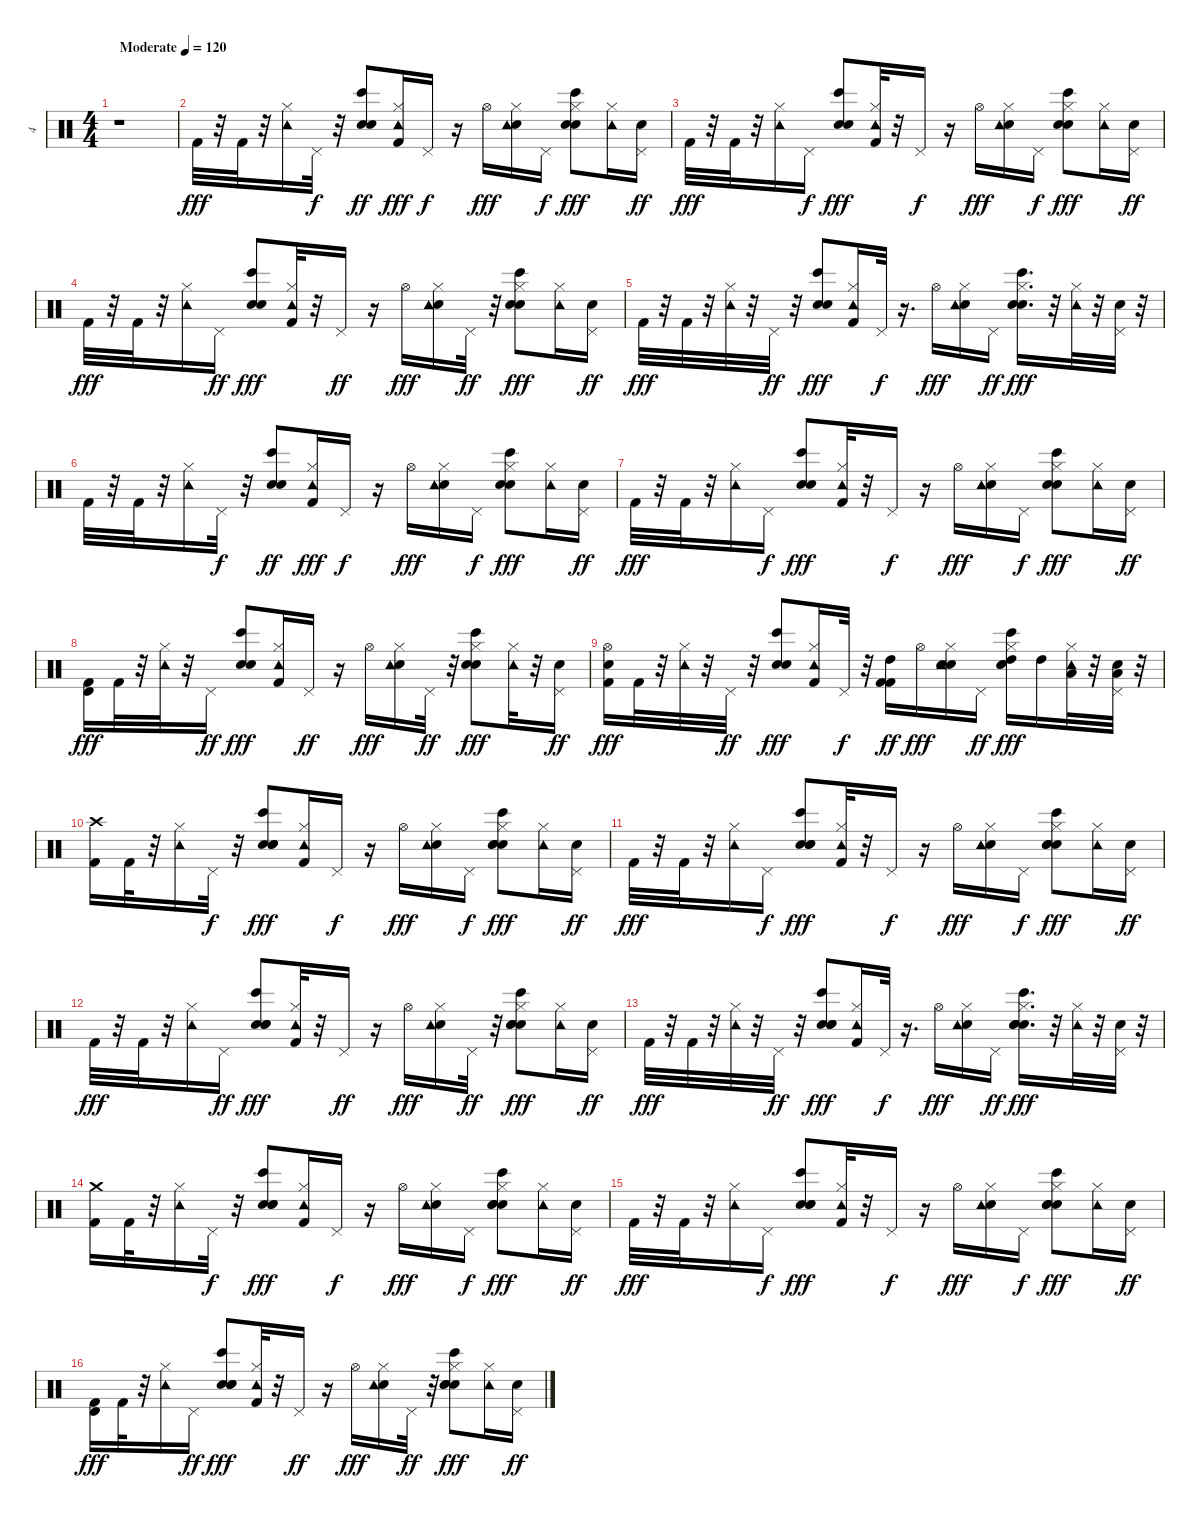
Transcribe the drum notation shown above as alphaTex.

\track ("4" "4") {instrument percussion}
\staff {score}
\articulation defaults
\ts (4 4)
\tempo (120 "Moderate")
\clef neutral
\ks c
r.1{dy fff} |
"Kick (hit) 2".32{volume 15 balance 8} r.32 "Kick (hit) 2".32 r.32 ("Hi-Hat (closed)" "Tambourine (hit)").16 "Pedal Hi-Hat (hit)".32{dy f} r.32 ("Snare (hit) 2" "Bongo High (hit)" "Hand Clap (hit)").8{dy ff} ("Hi-Hat (closed)" "Tambourine (hit)" "Kick (hit) 2").16{dy fff} "Pedal Hi-Hat (hit)".16{dy f} r.16 "Hi-Hat (open)".16{dy fff} ("Hi-Hat (closed)" "Snare (hit) 2" "Tambourine (hit)").16 "Pedal Hi-Hat (hit)".16{dy f} ("Snare (hit) 2" "Hi-Hat (closed)" "Hand Clap (hit)" "Bongo High (hit)").8{dy fff} ("Hi-Hat (closed)" "Tambourine (hit)").16 ("Pedal Hi-Hat (hit)" "Snare (hit) 2").16{dy ff} |
"Kick (hit) 2".32{dy fff} r.32 "Kick (hit) 2".32 r.32 ("Hi-Hat (closed)" "Tambourine (hit)").16 "Pedal Hi-Hat (hit)".16{dy f} ("Snare (hit) 2" "Bongo High (hit)" "Hand Clap (hit)").8{dy fff} ("Hi-Hat (closed)" "Kick (hit) 2" "Tambourine (hit)").32 r.32 "Pedal Hi-Hat (hit)".16{dy f} r.16 "Hi-Hat (open)".16{dy fff} ("Snare (hit) 2" "Hi-Hat (closed)" "Tambourine (hit)").16 "Pedal Hi-Hat (hit)".16{dy f} ("Snare (hit) 2" "Hand Clap (hit)" "Hi-Hat (closed)" "Bongo High (hit)").8{dy fff} ("Hi-Hat (closed)" "Tambourine (hit)").16 ("Pedal Hi-Hat (hit)" "Snare (hit) 2").16{dy ff} |
"Kick (hit) 2".32{dy fff} r.32 "Kick (hit) 2".32 r.32 ("Hi-Hat (closed)" "Tambourine (hit)").16 "Pedal Hi-Hat (hit)".16{dy ff} ("Snare (hit) 2" "Bongo High (hit)" "Hand Clap (hit)").8{dy fff} ("Hi-Hat (closed)" "Kick (hit) 2" "Tambourine (hit)").32 r.32 "Pedal Hi-Hat (hit)".16{dy ff} r.16 "Hi-Hat (open)".16{dy fff} ("Snare (hit) 2" "Hi-Hat (closed)" "Tambourine (hit)").16 "Pedal Hi-Hat (hit)".32{dy ff} r.32 ("Snare (hit) 2" "Hi-Hat (closed)" "Hand Clap (hit)" "Bongo High (hit)").8{dy fff} ("Hi-Hat (closed)" "Tambourine (hit)").16 ("Pedal Hi-Hat (hit)" "Snare (hit) 2").16{dy ff} |
"Kick (hit) 2".32{dy fff} r.32 "Kick (hit) 2".32 r.32 ("Hi-Hat (closed)" "Tambourine (hit)").32 r.32 "Pedal Hi-Hat (hit)".32{dy ff} r.32 ("Snare (hit) 2" "Bongo High (hit)" "Hand Clap (hit)").8{dy fff} ("Hi-Hat (closed)" "Kick (hit) 2" "Tambourine (hit)").16 "Pedal Hi-Hat (hit)".32{dy f} r.16{d} "Hi-Hat (open)".16{dy fff} ("Snare (hit) 2" "Hi-Hat (closed)" "Tambourine (hit)").16 "Pedal Hi-Hat (hit)".16{dy ff} ("Snare (hit) 2" "Hand Clap (hit)" "Hi-Hat (closed)" "Bongo High (hit)").16{d dy fff} r.32 ("Hi-Hat (closed)" "Tambourine (hit)").32 r.32 ("Pedal Hi-Hat (hit)" "Snare (hit) 2").32 r.32 |
"Kick (hit) 2".32 r.32 "Kick (hit) 2".32 r.32 ("Hi-Hat (closed)" "Tambourine (hit)").16 "Pedal Hi-Hat (hit)".32{dy f} r.32 ("Snare (hit) 2" "Bongo High (hit)" "Hand Clap (hit)").8{dy ff} ("Hi-Hat (closed)" "Kick (hit) 2" "Tambourine (hit)").16{dy fff} "Pedal Hi-Hat (hit)".16{dy f} r.16 "Hi-Hat (open)".16{dy fff} ("Hi-Hat (closed)" "Snare (hit) 2" "Tambourine (hit)").16 "Pedal Hi-Hat (hit)".16{dy f} ("Snare (hit) 2" "Hi-Hat (closed)" "Hand Clap (hit)" "Bongo High (hit)").8{dy fff} ("Hi-Hat (closed)" "Tambourine (hit)").16 ("Pedal Hi-Hat (hit)" "Snare (hit) 2").16{dy ff} |
"Kick (hit) 2".32{dy fff} r.32 "Kick (hit) 2".32 r.32 ("Hi-Hat (closed)" "Tambourine (hit)").16 "Pedal Hi-Hat (hit)".16{dy f} ("Snare (hit) 2" "Bongo High (hit)" "Hand Clap (hit)").8{dy fff} ("Hi-Hat (closed)" "Tambourine (hit)" "Kick (hit) 2").32 r.32 "Pedal Hi-Hat (hit)".16{dy f} r.16 "Hi-Hat (open)".16{dy fff} ("Snare (hit) 2" "Hi-Hat (closed)" "Tambourine (hit)").16 "Pedal Hi-Hat (hit)".16{dy f} ("Snare (hit) 2" "Hand Clap (hit)" "Hi-Hat (closed)" "Bongo High (hit)").8{dy fff} ("Hi-Hat (closed)" "Tambourine (hit)").16 ("Pedal Hi-Hat (hit)" "Snare (hit) 2").16{dy ff} |
("Kick (hit) 2" "Timbale high (hit)").16{dy fff} "Kick (hit) 2".32 r.32 ("Hi-Hat (closed)" "Tambourine (hit)").32 r.32 "Pedal Hi-Hat (hit)".16{dy ff} ("Snare (hit) 2" "Bongo High (hit)" "Hand Clap (hit)").8{dy fff} ("Hi-Hat (closed)" "Tambourine (hit)" "Kick (hit) 2").16 "Pedal Hi-Hat (hit)".16{dy ff} r.16 "Hi-Hat (open)".16{dy fff} ("Snare (hit) 2" "Hi-Hat (closed)" "Tambourine (hit)").16 "Pedal Hi-Hat (hit)".32{dy ff} r.32 ("Snare (hit) 2" "Hi-Hat (closed)" "Hand Clap (hit)" "Bongo High (hit)").8{dy fff} ("Hi-Hat (closed)" "Tambourine (hit)").32 r.32 ("Pedal Hi-Hat (hit)" "Snare (hit) 2").16{dy ff} |
("Kick (hit) 2" "Hi-Hat (open)" "Metronome (bell)").16{dy fff} "Kick (hit) 2".32 r.32 ("Hi-Hat (closed)" "Tambourine (hit)").32 r.32 "Pedal Hi-Hat (hit)".32{dy ff} r.32 ("Snare (hit) 2" "Bongo High (hit)" "Hand Clap (hit)").8{dy fff} ("Hi-Hat (closed)" "Tambourine (hit)" "Kick (hit) 2").16 "Pedal Hi-Hat (hit)".32{dy f} r.32 ("Kick (hit) 2" "High Tom (hit)" "Kick (hit) 2").16{dy ff} "Hi-Hat (open)".16{dy fff} ("Snare (hit) 2" "Hi-Hat (closed)" "Tambourine (hit)" "Snare (hit) 2").16 "Pedal Hi-Hat (hit)".16{dy ff} ("Snare (hit) 2" "High Tom (hit)" "Hand Clap (hit)" "Hi-Hat (closed)" "Bongo High (hit)").16{dy fff} "High Tom (hit)".16 ("Hi-Hat (closed)" "Low Tom (hit)" "Tambourine (hit)").32 r.32 ("Pedal Hi-Hat (hit)" "Snare (hit) 2" "Low Tom (hit)").32 r.32 |
("Crash high (hit)" "Kick (hit) 2").16 "Kick (hit) 2".32 r.32 ("Hi-Hat (closed)" "Tambourine (hit)").16 "Pedal Hi-Hat (hit)".32{dy f} r.32 ("Snare (hit) 2" "Bongo High (hit)" "Hand Clap (hit)" "Electric Snare (hit)").8{dy fff} ("Hi-Hat (closed)" "Tambourine (hit)" "Kick (hit) 2").16 "Pedal Hi-Hat (hit)".16{dy f} r.16 "Hi-Hat (open)".16{dy fff} ("Hi-Hat (closed)" "Snare (hit) 2" "Tambourine (hit)").16 "Pedal Hi-Hat (hit)".16{dy f} ("Snare (hit) 2" "Hi-Hat (closed)" "Hand Clap (hit)" "Bongo High (hit)" "Electric Snare (hit)").8{dy fff} ("Hi-Hat (closed)" "Tambourine (hit)").16 ("Pedal Hi-Hat (hit)" "Snare (hit) 2").16{dy ff} |
"Kick (hit) 2".32{dy fff} r.32 "Kick (hit) 2".32 r.32 ("Hi-Hat (closed)" "Tambourine (hit)").16 "Pedal Hi-Hat (hit)".16{dy f} ("Snare (hit) 2" "Electric Snare (hit)" "Bongo High (hit)" "Hand Clap (hit)").8{dy fff} ("Hi-Hat (closed)" "Kick (hit) 2" "Tambourine (hit)").32 r.32 "Pedal Hi-Hat (hit)".16{dy f} r.16 "Hi-Hat (open)".16{dy fff} ("Snare (hit) 2" "Hi-Hat (closed)" "Tambourine (hit)").16 "Pedal Hi-Hat (hit)".16{dy f} ("Snare (hit) 2" "Hand Clap (hit)" "Hi-Hat (closed)" "Bongo High (hit)" "Electric Snare (hit)").8{dy fff} ("Hi-Hat (closed)" "Tambourine (hit)").16 ("Pedal Hi-Hat (hit)" "Snare (hit) 2").16{dy ff} |
"Kick (hit) 2".32{dy fff} r.32 "Kick (hit) 2".32 r.32 ("Hi-Hat (closed)" "Tambourine (hit)").16 "Pedal Hi-Hat (hit)".16{dy ff} ("Snare (hit) 2" "Electric Snare (hit)" "Bongo High (hit)" "Hand Clap (hit)").8{dy fff} ("Hi-Hat (closed)" "Kick (hit) 2" "Tambourine (hit)").32 r.32 "Pedal Hi-Hat (hit)".16{dy ff} r.16 "Hi-Hat (open)".16{dy fff} ("Snare (hit) 2" "Hi-Hat (closed)" "Tambourine (hit)").16 "Pedal Hi-Hat (hit)".32{dy ff} r.32 ("Snare (hit) 2" "Electric Snare (hit)" "Hi-Hat (closed)" "Hand Clap (hit)" "Bongo High (hit)").8{dy fff} ("Hi-Hat (closed)" "Tambourine (hit)").16 ("Pedal Hi-Hat (hit)" "Snare (hit) 2").16{dy ff} |
"Kick (hit) 2".32{dy fff} r.32 "Kick (hit) 2".32 r.32 ("Hi-Hat (closed)" "Tambourine (hit)").32 r.32 "Pedal Hi-Hat (hit)".32{dy ff} r.32 ("Snare (hit) 2" "Electric Snare (hit)" "Bongo High (hit)" "Hand Clap (hit)").8{dy fff} ("Hi-Hat (closed)" "Kick (hit) 2" "Tambourine (hit)").16 "Pedal Hi-Hat (hit)".32{dy f} r.16{d} "Hi-Hat (open)".16{dy fff} ("Snare (hit) 2" "Hi-Hat (closed)" "Tambourine (hit)").16 "Pedal Hi-Hat (hit)".16{dy ff} ("Snare (hit) 2" "Electric Snare (hit)" "Hand Clap (hit)" "Hi-Hat (closed)" "Bongo High (hit)").16{d dy fff} r.32 ("Hi-Hat (closed)" "Tambourine (hit)").32 r.32 ("Pedal Hi-Hat (hit)" "Snare (hit) 2").32 r.32 |
("Crash medium (hit)" "Kick (hit) 2").16 "Kick (hit) 2".32 r.32 ("Hi-Hat (closed)" "Tambourine (hit)").16 "Pedal Hi-Hat (hit)".32{dy f} r.32 ("Snare (hit) 2" "Bongo High (hit)" "Hand Clap (hit)" "Electric Snare (hit)").8{dy fff} ("Hi-Hat (closed)" "Tambourine (hit)" "Kick (hit) 2").16 "Pedal Hi-Hat (hit)".16{dy f} r.16 "Hi-Hat (open)".16{dy fff} ("Hi-Hat (closed)" "Snare (hit) 2" "Tambourine (hit)").16 "Pedal Hi-Hat (hit)".16{dy f} ("Snare (hit) 2" "Hi-Hat (closed)" "Hand Clap (hit)" "Bongo High (hit)" "Electric Snare (hit)").8{dy fff} ("Hi-Hat (closed)" "Tambourine (hit)").16 ("Pedal Hi-Hat (hit)" "Snare (hit) 2").16{dy ff} |
"Kick (hit) 2".32{dy fff} r.32 "Kick (hit) 2".32 r.32 ("Hi-Hat (closed)" "Tambourine (hit)").16 "Pedal Hi-Hat (hit)".16{dy f} ("Snare (hit) 2" "Electric Snare (hit)" "Bongo High (hit)" "Hand Clap (hit)").8{dy fff} ("Hi-Hat (closed)" "Kick (hit) 2" "Tambourine (hit)").32 r.32 "Pedal Hi-Hat (hit)".16{dy f} r.16 "Hi-Hat (open)".16{dy fff} ("Snare (hit) 2" "Hi-Hat (closed)" "Tambourine (hit)").16 "Pedal Hi-Hat (hit)".16{dy f} ("Snare (hit) 2" "Hand Clap (hit)" "Hi-Hat (closed)" "Bongo High (hit)" "Electric Snare (hit)").8{dy fff} ("Hi-Hat (closed)" "Tambourine (hit)").16 ("Pedal Hi-Hat (hit)" "Snare (hit) 2").16{dy ff} |
("Kick (hit) 2" "Timbale high (hit)").16{dy fff} "Kick (hit) 2".32 r.32 ("Hi-Hat (closed)" "Tambourine (hit)").16 "Pedal Hi-Hat (hit)".16{dy ff} ("Snare (hit) 2" "Electric Snare (hit)" "Bongo High (hit)" "Hand Clap (hit)").8{dy fff} ("Hi-Hat (closed)" "Kick (hit) 2" "Tambourine (hit)").32 r.32 "Pedal Hi-Hat (hit)".16{dy ff} r.16 "Hi-Hat (open)".16{dy fff} ("Snare (hit) 2" "Hi-Hat (closed)" "Tambourine (hit)").16 "Pedal Hi-Hat (hit)".32{dy ff} r.32 ("Snare (hit) 2" "Electric Snare (hit)" "Hi-Hat (closed)" "Hand Clap (hit)" "Bongo High (hit)").8{dy fff} ("Hi-Hat (closed)" "Tambourine (hit)").16 ("Pedal Hi-Hat (hit)" "Snare (hit) 2").16{dy ff}
